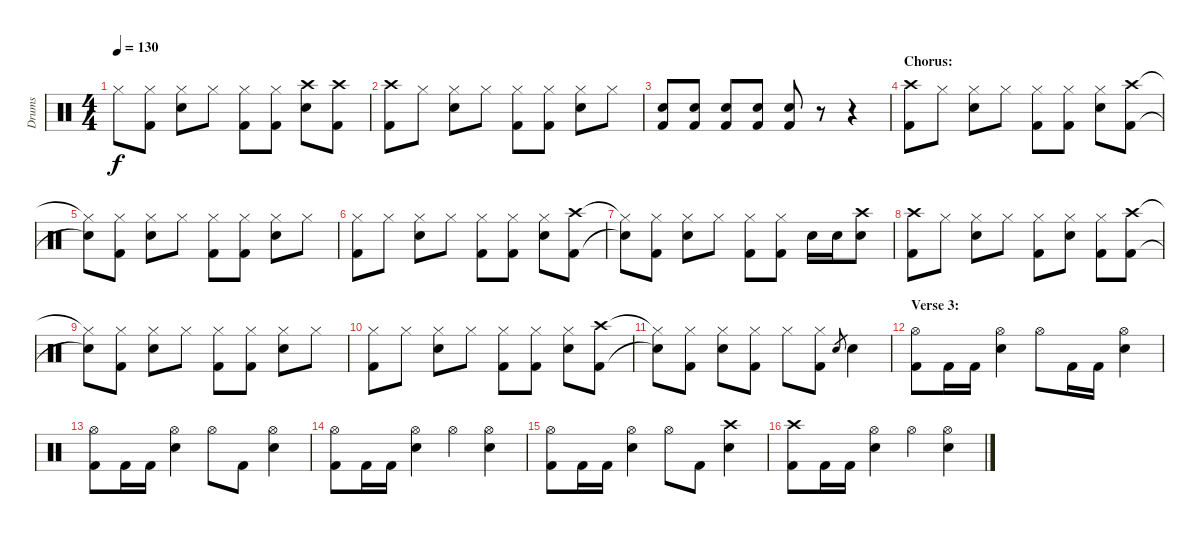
\track ("Drums" "Drums") {instrument percussion}
\staff {score}
\articulation defaults
\ts (4 4)
\tempo 130
\clef neutral
\ks c "Hi-Hat (closed)".8{dy f}
("Hi-Hat (closed)" "Kick (hit) 2").8 ("Hi-Hat (closed)" "Electric Snare (hit)").8 "Hi-Hat (closed)".8 ("Hi-Hat (closed)" "Kick (hit) 2").8 ("Hi-Hat (closed)" "Kick (hit) 2").8 ("Crash high (hit)" "Electric Snare (hit)").8 ("Crash high (hit)" "Kick (hit) 2").8 |
("Crash high (hit)" "Kick (hit) 2").8 "Hi-Hat (closed)".8 ("Hi-Hat (closed)" "Electric Snare (hit)").8 "Hi-Hat (closed)".8 ("Hi-Hat (closed)" "Kick (hit) 2").8 ("Hi-Hat (closed)" "Kick (hit) 2").8 ("Hi-Hat (closed)" "Electric Snare (hit)").8 "Hi-Hat (closed)".8 |
("Electric Snare (hit)" "Kick (hit) 2").8 ("Electric Snare (hit)" "Kick (hit) 2").8 ("Electric Snare (hit)" "Kick (hit) 2").8 ("Electric Snare (hit)" "Kick (hit) 2").8 ("Electric Snare (hit)" "Kick (hit) 2").8 r.8 r.4 |
\section ("" "Chorus:")
("Crash high (hit)" "Kick (hit) 2").8 "Hi-Hat (closed)".8 ("Hi-Hat (closed)" "Electric Snare (hit)").8 "Hi-Hat (closed)".8 ("Hi-Hat (closed)" "Kick (hit) 2").8 ("Hi-Hat (closed)" "Kick (hit) 2").8 ("Hi-Hat (closed)" "Electric Snare (hit)").8 ("Crash high (hit)" "Kick (hit) 2").8 |
("Hi-Hat (closed)"{t} "Snare (hit)"{t}).8 ("Hi-Hat (closed)" "Kick (hit) 2").8 ("Hi-Hat (closed)" "Electric Snare (hit)").8 "Hi-Hat (closed)".8 ("Hi-Hat (closed)" "Kick (hit) 2").8 ("Hi-Hat (closed)" "Kick (hit) 2").8 ("Hi-Hat (closed)" "Electric Snare (hit)").8 "Hi-Hat (closed)".8 |
("Hi-Hat (closed)" "Kick (hit) 2").8 "Hi-Hat (closed)".8 ("Hi-Hat (closed)" "Electric Snare (hit)").8 "Hi-Hat (closed)".8 ("Hi-Hat (closed)" "Kick (hit) 2").8 ("Hi-Hat (closed)" "Kick (hit) 2").8 ("Hi-Hat (closed)" "Electric Snare (hit)").8 ("Crash high (hit)" "Kick (hit) 2").8 |
("Hi-Hat (closed)"{t} "Snare (hit)"{t}).8 ("Hi-Hat (closed)" "Kick (hit) 2").8 ("Hi-Hat (closed)" "Electric Snare (hit)").8 "Hi-Hat (closed)".8 ("Hi-Hat (closed)" "Kick (hit) 2").8 ("Hi-Hat (closed)" "Kick (hit) 2").8 "Electric Snare (hit)".16 "Electric Snare (hit)".16 ("Crash high (hit)" "Electric Snare (hit)").8 |
("Crash high (hit)" "Kick (hit) 2").8 "Hi-Hat (closed)".8 ("Hi-Hat (closed)" "Electric Snare (hit)").8 "Hi-Hat (closed)".8 ("Hi-Hat (closed)" "Kick (hit) 2").8 ("Hi-Hat (closed)" "Electric Snare (hit)").8 ("Hi-Hat (closed)" "Kick (hit) 2").8 ("Crash high (hit)" "Kick (hit) 2").8 |
("Hi-Hat (closed)"{t} "Snare (hit)"{t}).8 ("Hi-Hat (closed)" "Kick (hit) 2").8 ("Hi-Hat (closed)" "Electric Snare (hit)").8 "Hi-Hat (closed)".8 ("Hi-Hat (closed)" "Kick (hit) 2").8 ("Hi-Hat (closed)" "Kick (hit) 2").8 ("Hi-Hat (closed)" "Electric Snare (hit)").8 "Hi-Hat (closed)".8 |
("Hi-Hat (closed)" "Kick (hit) 2").8 "Hi-Hat (closed)".8 ("Hi-Hat (closed)" "Electric Snare (hit)").8 "Hi-Hat (closed)".8 ("Hi-Hat (closed)" "Kick (hit) 2").8 ("Hi-Hat (closed)" "Kick (hit) 2").8 ("Hi-Hat (closed)" "Electric Snare (hit)").8 ("Crash high (hit)" "Kick (hit) 2").8 |
("Hi-Hat (closed)"{t} "Snare (hit)"{t}).8 ("Hi-Hat (closed)" "Kick (hit) 2").8 ("Hi-Hat (closed)" "Electric Snare (hit)").8 ("Hi-Hat (closed)" "Kick (hit) 2").8 "Hi-Hat (closed)".8 ("Hi-Hat (closed)" "Kick (hit) 2").8 "Electric Snare (hit)".8{gr} "Electric Snare (hit)".4 |
\section ("" "Verse 3:")
("Hi-Hat (open)" "Kick (hit) 2").8 "Kick (hit) 2".16 "Kick (hit) 2".16 ("Hi-Hat (open)" "Electric Snare (hit)").4 "Hi-Hat (open)".8 "Kick (hit) 2".16 "Kick (hit) 2".16 ("Hi-Hat (open)" "Electric Snare (hit)").4 |
("Hi-Hat (open)" "Kick (hit) 2").8 "Kick (hit) 2".16 "Kick (hit) 2".16 ("Hi-Hat (open)" "Electric Snare (hit)").4 "Hi-Hat (open)".8 "Kick (hit) 2".8 ("Hi-Hat (open)" "Electric Snare (hit)").4 |
("Hi-Hat (open)" "Kick (hit) 2").8 "Kick (hit) 2".16 "Kick (hit) 2".16 ("Hi-Hat (open)" "Electric Snare (hit)").4 "Hi-Hat (open)".4 ("Hi-Hat (open)" "Electric Snare (hit)").4 |
("Hi-Hat (open)" "Kick (hit) 2").8 "Kick (hit) 2".16 "Kick (hit) 2".16 ("Hi-Hat (open)" "Electric Snare (hit)").4 "Hi-Hat (open)".8 "Kick (hit) 2".8 ("Crash high (hit)" "Electric Snare (hit)").4 |
("Crash high (hit)" "Kick (hit) 2").8 "Kick (hit) 2".16 "Kick (hit) 2".16 ("Hi-Hat (open)" "Electric Snare (hit)").4 "Hi-Hat (open)".4 ("Hi-Hat (open)" "Electric Snare (hit)").4
